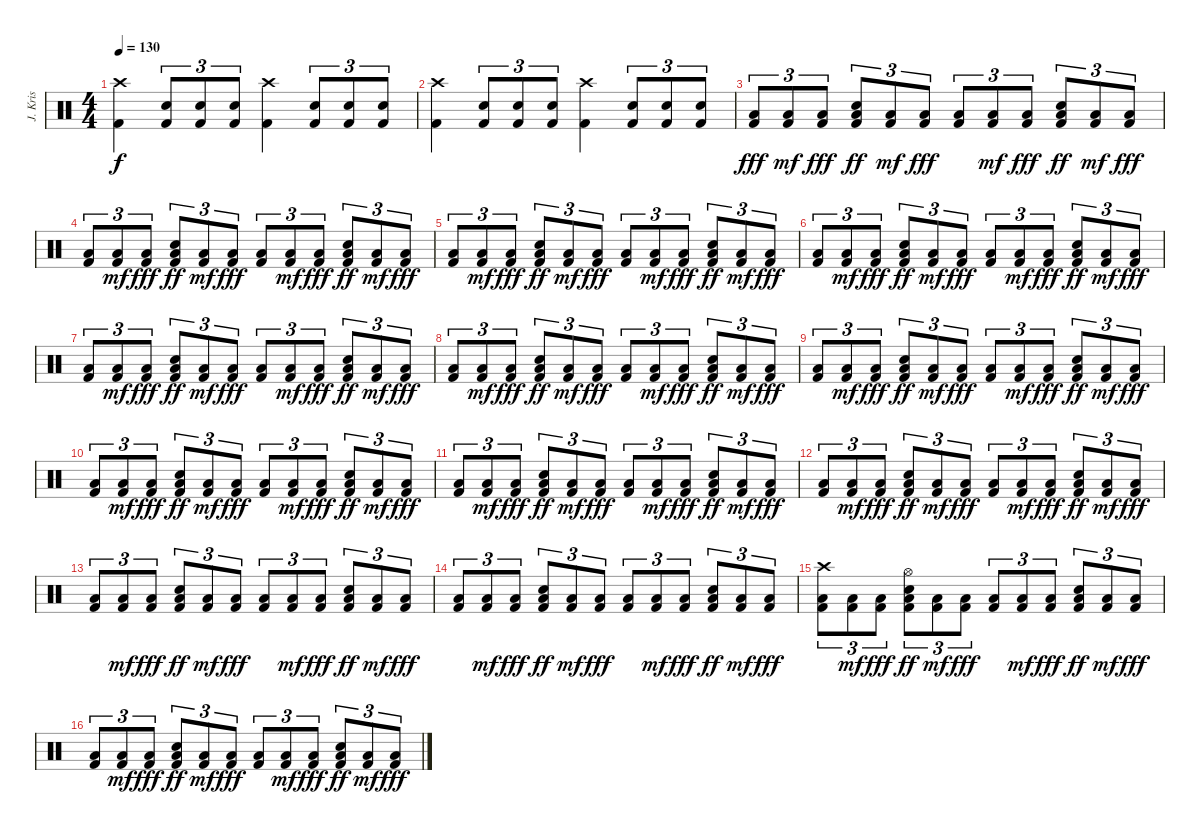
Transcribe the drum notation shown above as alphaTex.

\track ("   J. Kristensson (drums)" "   J. Kris") {instrument percussion}
\staff {score}
\articulation defaults
\ts (4 4)
\tempo 130
\clef neutral
\ks c
("Crash high (hit)" "Kick (hit) 2").4{dy f} ("Electric Snare (hit)" "Kick (hit) 2").8{tu (3 2)} ("Electric Snare (hit)" "Kick (hit) 2").8{tu (3 2)} ("Electric Snare (hit)" "Kick (hit) 2").8{tu (3 2)} ("Crash high (hit)" "Kick (hit) 2").4 ("Electric Snare (hit)" "Kick (hit) 2").8{tu (3 2)} ("Electric Snare (hit)" "Kick (hit) 2").8{tu (3 2)} ("Electric Snare (hit)" "Kick (hit) 2").8{tu (3 2)} |
("Crash high (hit)" "Kick (hit) 2").4 ("Electric Snare (hit)" "Kick (hit) 2").8{tu (3 2)} ("Electric Snare (hit)" "Kick (hit) 2").8{tu (3 2)} ("Electric Snare (hit)" "Kick (hit) 2").8{tu (3 2)} ("Crash high (hit)" "Kick (hit) 2").4 ("Electric Snare (hit)" "Kick (hit) 2").8{tu (3 2)} ("Electric Snare (hit)" "Kick (hit) 2").8{tu (3 2)} ("Electric Snare (hit)" "Kick (hit) 2").8{tu (3 2)} |
("Low Floor Tom (hit)" "Kick (hit) 2").8{tu (3 2) dy fff} ("Low Floor Tom (hit)" "Kick (hit) 2").8{tu (3 2) dy mf} ("Low Floor Tom (hit)" "Kick (hit) 2").8{tu (3 2) dy fff} ("Low Floor Tom (hit)" "Electric Snare (hit)" "Kick (hit) 2").8{tu (3 2) dy ff} ("Low Floor Tom (hit)" "Kick (hit) 2").8{tu (3 2) dy mf} ("Low Floor Tom (hit)" "Kick (hit) 2").8{tu (3 2) dy fff} ("Low Floor Tom (hit)" "Kick (hit) 2").8{tu (3 2)} ("Low Floor Tom (hit)" "Kick (hit) 2").8{tu (3 2) dy mf} ("Low Floor Tom (hit)" "Kick (hit) 2").8{tu (3 2) dy fff} ("Low Floor Tom (hit)" "Electric Snare (hit)" "Kick (hit) 2").8{tu (3 2) dy ff} ("Low Floor Tom (hit)" "Kick (hit) 2").8{tu (3 2) dy mf} ("Low Floor Tom (hit)" "Kick (hit) 2").8{tu (3 2) dy fff} |
("Low Floor Tom (hit)" "Kick (hit) 2").8{tu (3 2)} ("Low Floor Tom (hit)" "Kick (hit) 2").8{tu (3 2) dy mf} ("Low Floor Tom (hit)" "Kick (hit) 2").8{tu (3 2) dy fff} ("Low Floor Tom (hit)" "Electric Snare (hit)" "Kick (hit) 2").8{tu (3 2) dy ff} ("Low Floor Tom (hit)" "Kick (hit) 2").8{tu (3 2) dy mf} ("Low Floor Tom (hit)" "Kick (hit) 2").8{tu (3 2) dy fff} ("Low Floor Tom (hit)" "Kick (hit) 2").8{tu (3 2)} ("Low Floor Tom (hit)" "Kick (hit) 2").8{tu (3 2) dy mf} ("Low Floor Tom (hit)" "Kick (hit) 2").8{tu (3 2) dy fff} ("Low Floor Tom (hit)" "Electric Snare (hit)" "Kick (hit) 2").8{tu (3 2) dy ff} ("Low Floor Tom (hit)" "Kick (hit) 2").8{tu (3 2) dy mf} ("Low Floor Tom (hit)" "Kick (hit) 2").8{tu (3 2) dy fff} |
("Low Floor Tom (hit)" "Kick (hit) 2").8{tu (3 2)} ("Low Floor Tom (hit)" "Kick (hit) 2").8{tu (3 2) dy mf} ("Low Floor Tom (hit)" "Kick (hit) 2").8{tu (3 2) dy fff} ("Low Floor Tom (hit)" "Electric Snare (hit)" "Kick (hit) 2").8{tu (3 2) dy ff} ("Low Floor Tom (hit)" "Kick (hit) 2").8{tu (3 2) dy mf} ("Low Floor Tom (hit)" "Kick (hit) 2").8{tu (3 2) dy fff} ("Low Floor Tom (hit)" "Kick (hit) 2").8{tu (3 2)} ("Low Floor Tom (hit)" "Kick (hit) 2").8{tu (3 2) dy mf} ("Low Floor Tom (hit)" "Kick (hit) 2").8{tu (3 2) dy fff} ("Low Floor Tom (hit)" "Electric Snare (hit)" "Kick (hit) 2").8{tu (3 2) dy ff} ("Low Floor Tom (hit)" "Kick (hit) 2").8{tu (3 2) dy mf} ("Low Floor Tom (hit)" "Kick (hit) 2").8{tu (3 2) dy fff} |
("Low Floor Tom (hit)" "Kick (hit) 2").8{tu (3 2)} ("Low Floor Tom (hit)" "Kick (hit) 2").8{tu (3 2) dy mf} ("Low Floor Tom (hit)" "Kick (hit) 2").8{tu (3 2) dy fff} ("Low Floor Tom (hit)" "Electric Snare (hit)" "Kick (hit) 2").8{tu (3 2) dy ff} ("Low Floor Tom (hit)" "Kick (hit) 2").8{tu (3 2) dy mf} ("Low Floor Tom (hit)" "Kick (hit) 2").8{tu (3 2) dy fff} ("Low Floor Tom (hit)" "Kick (hit) 2").8{tu (3 2)} ("Low Floor Tom (hit)" "Kick (hit) 2").8{tu (3 2) dy mf} ("Low Floor Tom (hit)" "Kick (hit) 2").8{tu (3 2) dy fff} ("Low Floor Tom (hit)" "Electric Snare (hit)" "Kick (hit) 2").8{tu (3 2) dy ff} ("Low Floor Tom (hit)" "Kick (hit) 2").8{tu (3 2) dy mf} ("Low Floor Tom (hit)" "Kick (hit) 2").8{tu (3 2) dy fff} |
("Low Floor Tom (hit)" "Kick (hit) 2").8{tu (3 2)} ("Low Floor Tom (hit)" "Kick (hit) 2").8{tu (3 2) dy mf} ("Low Floor Tom (hit)" "Kick (hit) 2").8{tu (3 2) dy fff} ("Low Floor Tom (hit)" "Electric Snare (hit)" "Kick (hit) 2").8{tu (3 2) dy ff} ("Low Floor Tom (hit)" "Kick (hit) 2").8{tu (3 2) dy mf} ("Low Floor Tom (hit)" "Kick (hit) 2").8{tu (3 2) dy fff} ("Low Floor Tom (hit)" "Kick (hit) 2").8{tu (3 2)} ("Low Floor Tom (hit)" "Kick (hit) 2").8{tu (3 2) dy mf} ("Low Floor Tom (hit)" "Kick (hit) 2").8{tu (3 2) dy fff} ("Low Floor Tom (hit)" "Electric Snare (hit)" "Kick (hit) 2").8{tu (3 2) dy ff} ("Low Floor Tom (hit)" "Kick (hit) 2").8{tu (3 2) dy mf} ("Low Floor Tom (hit)" "Kick (hit) 2").8{tu (3 2) dy fff} |
("Low Floor Tom (hit)" "Kick (hit) 2").8{tu (3 2)} ("Low Floor Tom (hit)" "Kick (hit) 2").8{tu (3 2) dy mf} ("Low Floor Tom (hit)" "Kick (hit) 2").8{tu (3 2) dy fff} ("Low Floor Tom (hit)" "Electric Snare (hit)" "Kick (hit) 2").8{tu (3 2) dy ff} ("Low Floor Tom (hit)" "Kick (hit) 2").8{tu (3 2) dy mf} ("Low Floor Tom (hit)" "Kick (hit) 2").8{tu (3 2) dy fff} ("Low Floor Tom (hit)" "Kick (hit) 2").8{tu (3 2)} ("Low Floor Tom (hit)" "Kick (hit) 2").8{tu (3 2) dy mf} ("Low Floor Tom (hit)" "Kick (hit) 2").8{tu (3 2) dy fff} ("Low Floor Tom (hit)" "Electric Snare (hit)" "Kick (hit) 2").8{tu (3 2) dy ff} ("Low Floor Tom (hit)" "Kick (hit) 2").8{tu (3 2) dy mf} ("Low Floor Tom (hit)" "Kick (hit) 2").8{tu (3 2) dy fff} |
("Low Floor Tom (hit)" "Kick (hit) 2").8{tu (3 2)} ("Low Floor Tom (hit)" "Kick (hit) 2").8{tu (3 2) dy mf} ("Low Floor Tom (hit)" "Kick (hit) 2").8{tu (3 2) dy fff} ("Low Floor Tom (hit)" "Electric Snare (hit)" "Kick (hit) 2").8{tu (3 2) dy ff} ("Low Floor Tom (hit)" "Kick (hit) 2").8{tu (3 2) dy mf} ("Low Floor Tom (hit)" "Kick (hit) 2").8{tu (3 2) dy fff} ("Low Floor Tom (hit)" "Kick (hit) 2").8{tu (3 2)} ("Low Floor Tom (hit)" "Kick (hit) 2").8{tu (3 2) dy mf} ("Low Floor Tom (hit)" "Kick (hit) 2").8{tu (3 2) dy fff} ("Low Floor Tom (hit)" "Electric Snare (hit)" "Kick (hit) 2").8{tu (3 2) dy ff} ("Low Floor Tom (hit)" "Kick (hit) 2").8{tu (3 2) dy mf} ("Low Floor Tom (hit)" "Kick (hit) 2").8{tu (3 2) dy fff} |
("Low Floor Tom (hit)" "Kick (hit) 2").8{tu (3 2)} ("Low Floor Tom (hit)" "Kick (hit) 2").8{tu (3 2) dy mf} ("Low Floor Tom (hit)" "Kick (hit) 2").8{tu (3 2) dy fff} ("Low Floor Tom (hit)" "Electric Snare (hit)" "Kick (hit) 2").8{tu (3 2) dy ff} ("Low Floor Tom (hit)" "Kick (hit) 2").8{tu (3 2) dy mf} ("Low Floor Tom (hit)" "Kick (hit) 2").8{tu (3 2) dy fff} ("Low Floor Tom (hit)" "Kick (hit) 2").8{tu (3 2)} ("Low Floor Tom (hit)" "Kick (hit) 2").8{tu (3 2) dy mf} ("Low Floor Tom (hit)" "Kick (hit) 2").8{tu (3 2) dy fff} ("Low Floor Tom (hit)" "Electric Snare (hit)" "Kick (hit) 2").8{tu (3 2) dy ff} ("Low Floor Tom (hit)" "Kick (hit) 2").8{tu (3 2) dy mf} ("Low Floor Tom (hit)" "Kick (hit) 2").8{tu (3 2) dy fff} |
("Low Floor Tom (hit)" "Kick (hit) 2").8{tu (3 2)} ("Low Floor Tom (hit)" "Kick (hit) 2").8{tu (3 2) dy mf} ("Low Floor Tom (hit)" "Kick (hit) 2").8{tu (3 2) dy fff} ("Low Floor Tom (hit)" "Electric Snare (hit)" "Kick (hit) 2").8{tu (3 2) dy ff} ("Low Floor Tom (hit)" "Kick (hit) 2").8{tu (3 2) dy mf} ("Low Floor Tom (hit)" "Kick (hit) 2").8{tu (3 2) dy fff} ("Low Floor Tom (hit)" "Kick (hit) 2").8{tu (3 2)} ("Low Floor Tom (hit)" "Kick (hit) 2").8{tu (3 2) dy mf} ("Low Floor Tom (hit)" "Kick (hit) 2").8{tu (3 2) dy fff} ("Low Floor Tom (hit)" "Electric Snare (hit)" "Kick (hit) 2").8{tu (3 2) dy ff} ("Low Floor Tom (hit)" "Kick (hit) 2").8{tu (3 2) dy mf} ("Low Floor Tom (hit)" "Kick (hit) 2").8{tu (3 2) dy fff} |
("Low Floor Tom (hit)" "Kick (hit) 2").8{tu (3 2)} ("Low Floor Tom (hit)" "Kick (hit) 2").8{tu (3 2) dy mf} ("Low Floor Tom (hit)" "Kick (hit) 2").8{tu (3 2) dy fff} ("Low Floor Tom (hit)" "Electric Snare (hit)" "Kick (hit) 2").8{tu (3 2) dy ff} ("Low Floor Tom (hit)" "Kick (hit) 2").8{tu (3 2) dy mf} ("Low Floor Tom (hit)" "Kick (hit) 2").8{tu (3 2) dy fff} ("Low Floor Tom (hit)" "Kick (hit) 2").8{tu (3 2)} ("Low Floor Tom (hit)" "Kick (hit) 2").8{tu (3 2) dy mf} ("Low Floor Tom (hit)" "Kick (hit) 2").8{tu (3 2) dy fff} ("Low Floor Tom (hit)" "Electric Snare (hit)" "Kick (hit) 2").8{tu (3 2) dy ff} ("Low Floor Tom (hit)" "Kick (hit) 2").8{tu (3 2) dy mf} ("Low Floor Tom (hit)" "Kick (hit) 2").8{tu (3 2) dy fff} |
("Low Floor Tom (hit)" "Kick (hit) 2").8{tu (3 2)} ("Low Floor Tom (hit)" "Kick (hit) 2").8{tu (3 2) dy mf} ("Low Floor Tom (hit)" "Kick (hit) 2").8{tu (3 2) dy fff} ("Low Floor Tom (hit)" "Electric Snare (hit)" "Kick (hit) 2").8{tu (3 2) dy ff} ("Low Floor Tom (hit)" "Kick (hit) 2").8{tu (3 2) dy mf} ("Low Floor Tom (hit)" "Kick (hit) 2").8{tu (3 2) dy fff} ("Low Floor Tom (hit)" "Kick (hit) 2").8{tu (3 2)} ("Low Floor Tom (hit)" "Kick (hit) 2").8{tu (3 2) dy mf} ("Low Floor Tom (hit)" "Kick (hit) 2").8{tu (3 2) dy fff} ("Low Floor Tom (hit)" "Electric Snare (hit)" "Kick (hit) 2").8{tu (3 2) dy ff} ("Low Floor Tom (hit)" "Kick (hit) 2").8{tu (3 2) dy mf} ("Low Floor Tom (hit)" "Kick (hit) 2").8{tu (3 2) dy fff} |
("Low Floor Tom (hit)" "Kick (hit) 2").8{tu (3 2)} ("Low Floor Tom (hit)" "Kick (hit) 2").8{tu (3 2) dy mf} ("Low Floor Tom (hit)" "Kick (hit) 2").8{tu (3 2) dy fff} ("Low Floor Tom (hit)" "Electric Snare (hit)" "Kick (hit) 2").8{tu (3 2) dy ff} ("Low Floor Tom (hit)" "Kick (hit) 2").8{tu (3 2) dy mf} ("Low Floor Tom (hit)" "Kick (hit) 2").8{tu (3 2) dy fff} ("Low Floor Tom (hit)" "Kick (hit) 2").8{tu (3 2)} ("Low Floor Tom (hit)" "Kick (hit) 2").8{tu (3 2) dy mf} ("Low Floor Tom (hit)" "Kick (hit) 2").8{tu (3 2) dy fff} ("Low Floor Tom (hit)" "Electric Snare (hit)" "Kick (hit) 2").8{tu (3 2) dy ff} ("Low Floor Tom (hit)" "Kick (hit) 2").8{tu (3 2) dy mf} ("Low Floor Tom (hit)" "Kick (hit) 2").8{tu (3 2) dy fff} |
("Low Floor Tom (hit)" "Crash high (hit)" "Kick (hit) 2").8{tu (3 2)} ("Low Floor Tom (hit)" "Kick (hit) 2").8{tu (3 2) dy mf} ("Low Floor Tom (hit)" "Kick (hit) 2").8{tu (3 2) dy fff} ("Low Floor Tom (hit)" "Electric Snare (hit)" "Hi-Hat (open)" "Kick (hit) 2").8{tu (3 2) dy ff} ("Low Floor Tom (hit)" "Kick (hit) 2").8{tu (3 2) dy mf} ("Low Floor Tom (hit)" "Kick (hit) 2").8{tu (3 2) dy fff} ("Low Floor Tom (hit)" "Kick (hit) 2").8{tu (3 2)} ("Low Floor Tom (hit)" "Kick (hit) 2").8{tu (3 2) dy mf} ("Low Floor Tom (hit)" "Kick (hit) 2").8{tu (3 2) dy fff} ("Low Floor Tom (hit)" "Electric Snare (hit)" "Kick (hit) 2").8{tu (3 2) dy ff} ("Low Floor Tom (hit)" "Kick (hit) 2").8{tu (3 2) dy mf} ("Low Floor Tom (hit)" "Kick (hit) 2").8{tu (3 2) dy fff} |
("Low Floor Tom (hit)" "Kick (hit) 2").8{tu (3 2)} ("Low Floor Tom (hit)" "Kick (hit) 2").8{tu (3 2) dy mf} ("Low Floor Tom (hit)" "Kick (hit) 2").8{tu (3 2) dy fff} ("Low Floor Tom (hit)" "Electric Snare (hit)" "Kick (hit) 2").8{tu (3 2) dy ff} ("Low Floor Tom (hit)" "Kick (hit) 2").8{tu (3 2) dy mf} ("Low Floor Tom (hit)" "Kick (hit) 2").8{tu (3 2) dy fff} ("Low Floor Tom (hit)" "Kick (hit) 2").8{tu (3 2)} ("Low Floor Tom (hit)" "Kick (hit) 2").8{tu (3 2) dy mf} ("Low Floor Tom (hit)" "Kick (hit) 2").8{tu (3 2) dy fff} ("Low Floor Tom (hit)" "Electric Snare (hit)" "Kick (hit) 2").8{tu (3 2) dy ff} ("Low Floor Tom (hit)" "Kick (hit) 2").8{tu (3 2) dy mf} ("Low Floor Tom (hit)" "Kick (hit) 2").8{tu (3 2) dy fff}
